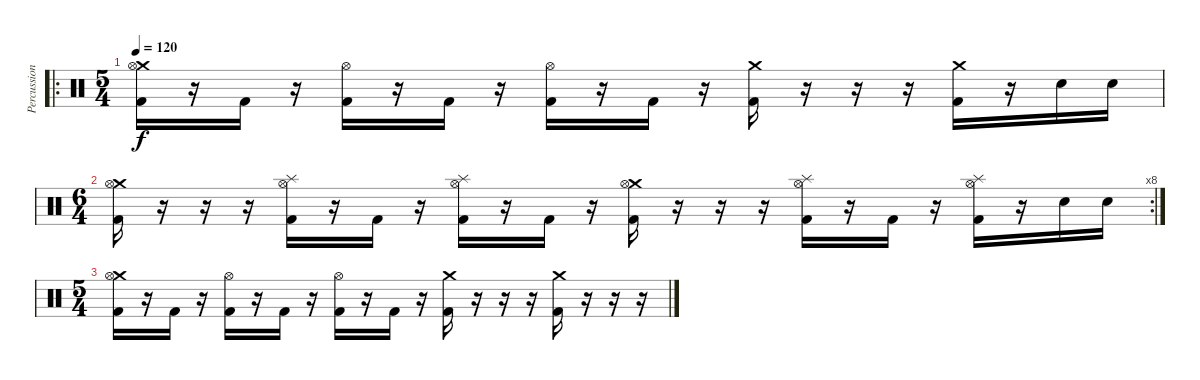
\track ("Percussion" "Percussion") {instrument percussion}
\staff {score}
\articulation defaults
\ro
\ts (5 4)
\tempo 120
\clef neutral
\ks c
("Crash medium (hit)" "Hi-Hat (open)" "Kick (hit) 2").16{dy f} r.16 "Kick (hit) 2".16 r.16 ("Hi-Hat (open)" "Kick (hit) 2").16 r.16 "Kick (hit) 2".16 r.16 ("Hi-Hat (open)" "Kick (hit) 2").16 r.16 "Kick (hit) 2".16 r.16 ("Crash medium (hit)" "Kick (hit) 2").16 r.16 r.16 r.16 ("Crash medium (hit)" "Kick (hit) 2").16 r.16 "Snare (hit) 2".16 "Snare (hit) 2".16 |
\rc 8
\ts (6 4)
("Crash medium (hit)" "Hi-Hat (open)" "Kick (hit) 2").16 r.16 r.16 r.16 ("Splash (hit)" "Hi-Hat (open)" "Kick (hit) 2").16 r.16 "Kick (hit) 2".16 r.16 ("Splash (hit)" "Hi-Hat (open)" "Kick (hit) 2").16 r.16 "Kick (hit) 2".16 r.16 ("Crash medium (hit)" "Hi-Hat (open)" "Kick (hit) 2").16 r.16 r.16 r.16 ("Splash (hit)" "Hi-Hat (open)" "Kick (hit) 2").16 r.16 "Kick (hit) 2".16 r.16 ("Splash (hit)" "Hi-Hat (open)" "Kick (hit) 2").16 r.16 "Snare (hit) 2".16 "Snare (hit) 2".16 |
\ts (5 4)
("Crash medium (hit)" "Hi-Hat (open)" "Kick (hit) 2").16 r.16 "Kick (hit) 2".16 r.16 ("Hi-Hat (open)" "Kick (hit) 2").16 r.16 "Kick (hit) 2".16 r.16 ("Hi-Hat (open)" "Kick (hit) 2").16 r.16 "Kick (hit) 2".16 r.16 ("Crash medium (hit)" "Kick (hit) 2").16 r.16 r.16 r.16 ("Crash medium (hit)" "Kick (hit) 2").16 r.16 r.16 r.16
